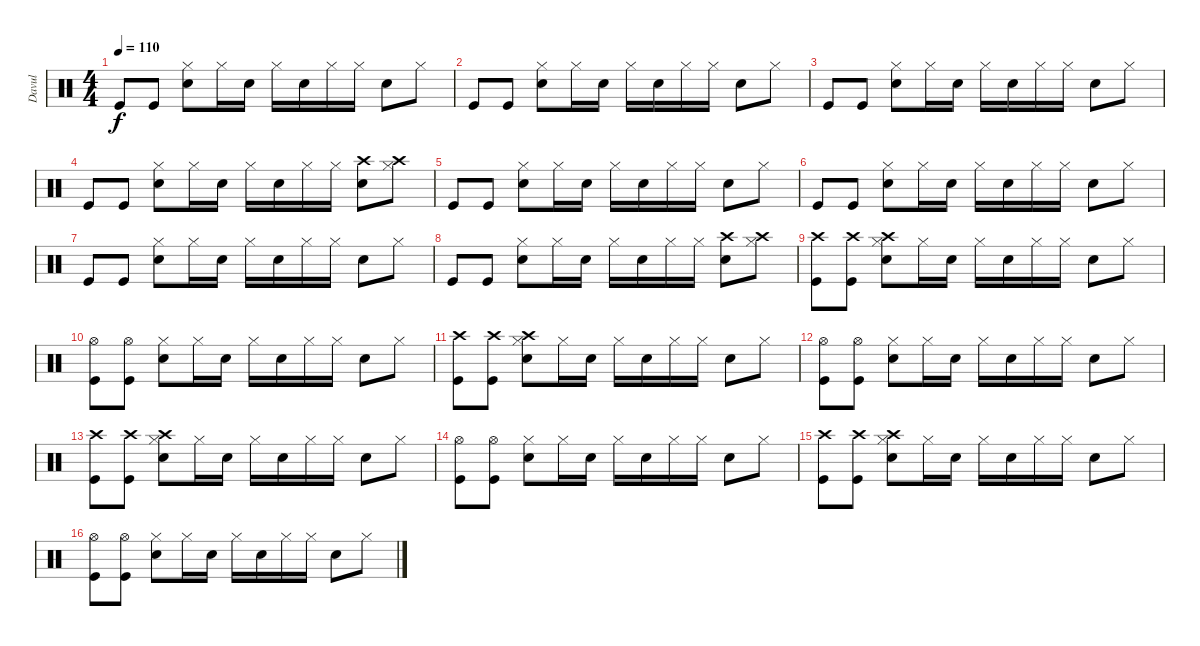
\track ("Davul" "Davul") {instrument percussion}
\staff {score}
\articulation defaults
\ts (4 4)
\tempo 110
\clef neutral
\ks c "Kick (hit)".8{dy f} "Kick (hit)".8
("Snare (hit) 2" "Hi-Hat (closed)").8 "Hi-Hat (closed)".16 "Snare (hit) 2".16 "Hi-Hat (closed)".16 "Snare (hit) 2".16 "Hi-Hat (closed)".16 "Hi-Hat (closed)".16 "Snare (hit) 2".8 "Hi-Hat (closed)".8 |
"Kick (hit)".8 "Kick (hit)".8 ("Snare (hit) 2" "Hi-Hat (closed)").8 "Hi-Hat (closed)".16 "Snare (hit) 2".16 "Hi-Hat (closed)".16 "Snare (hit) 2".16 "Hi-Hat (closed)".16 "Hi-Hat (closed)".16 "Snare (hit) 2".8 "Hi-Hat (closed)".8 |
"Kick (hit)".8 "Kick (hit)".8 ("Snare (hit) 2" "Hi-Hat (closed)").8 "Hi-Hat (closed)".16 "Snare (hit) 2".16 "Hi-Hat (closed)".16 "Snare (hit) 2".16 "Hi-Hat (closed)".16 "Hi-Hat (closed)".16 "Snare (hit) 2".8 "Hi-Hat (closed)".8 |
"Kick (hit)".8 "Kick (hit)".8 ("Snare (hit) 2" "Hi-Hat (closed)").8 "Hi-Hat (closed)".16 "Snare (hit) 2".16 "Hi-Hat (closed)".16 "Snare (hit) 2".16 "Hi-Hat (closed)".16 "Hi-Hat (closed)".16 ("Crash high (hit)" "Snare (hit) 2").8 ("Crash high (hit)" "Hi-Hat (closed)").8 |
"Kick (hit)".8 "Kick (hit)".8 ("Snare (hit) 2" "Hi-Hat (closed)").8 "Hi-Hat (closed)".16 "Snare (hit) 2".16 "Hi-Hat (closed)".16 "Snare (hit) 2".16 "Hi-Hat (closed)".16 "Hi-Hat (closed)".16 "Snare (hit) 2".8 "Hi-Hat (closed)".8 |
"Kick (hit)".8 "Kick (hit)".8 ("Snare (hit) 2" "Hi-Hat (closed)").8 "Hi-Hat (closed)".16 "Snare (hit) 2".16 "Hi-Hat (closed)".16 "Snare (hit) 2".16 "Hi-Hat (closed)".16 "Hi-Hat (closed)".16 "Snare (hit) 2".8 "Hi-Hat (closed)".8 |
"Kick (hit)".8 "Kick (hit)".8 ("Snare (hit) 2" "Hi-Hat (closed)").8 "Hi-Hat (closed)".16 "Snare (hit) 2".16 "Hi-Hat (closed)".16 "Snare (hit) 2".16 "Hi-Hat (closed)".16 "Hi-Hat (closed)".16 "Snare (hit) 2".8 "Hi-Hat (closed)".8 |
"Kick (hit)".8 "Kick (hit)".8 ("Snare (hit) 2" "Hi-Hat (closed)").8 "Hi-Hat (closed)".16 "Snare (hit) 2".16 "Hi-Hat (closed)".16 "Snare (hit) 2".16 "Hi-Hat (closed)".16 "Hi-Hat (closed)".16 ("Crash high (hit)" "Snare (hit) 2").8 ("Crash high (hit)" "Hi-Hat (closed)").8 |
("Kick (hit)" "Crash high (hit)").8 ("Kick (hit)" "Crash high (hit)").8 ("Snare (hit) 2" "Crash high (hit)" "Hi-Hat (closed)").8 "Hi-Hat (closed)".16 "Snare (hit) 2".16 "Hi-Hat (closed)".16 "Snare (hit) 2".16 "Hi-Hat (closed)".16 "Hi-Hat (closed)".16 "Snare (hit) 2".8 "Hi-Hat (closed)".8 |
("Kick (hit)" "Hi-Hat (open)").8 ("Kick (hit)" "Hi-Hat (open)").8 ("Snare (hit) 2" "Hi-Hat (closed)").8 "Hi-Hat (closed)".16 "Snare (hit) 2".16 "Hi-Hat (closed)".16 "Snare (hit) 2".16 "Hi-Hat (closed)".16 "Hi-Hat (closed)".16 "Snare (hit) 2".8 "Hi-Hat (closed)".8 |
("Kick (hit)" "Crash high (hit)").8 ("Kick (hit)" "Crash high (hit)").8 ("Snare (hit) 2" "Crash high (hit)" "Hi-Hat (closed)").8 "Hi-Hat (closed)".16 "Snare (hit) 2".16 "Hi-Hat (closed)".16 "Snare (hit) 2".16 "Hi-Hat (closed)".16 "Hi-Hat (closed)".16 "Snare (hit) 2".8 "Hi-Hat (closed)".8 |
("Kick (hit)" "Hi-Hat (open)").8 ("Kick (hit)" "Hi-Hat (open)").8 ("Snare (hit) 2" "Hi-Hat (closed)").8 "Hi-Hat (closed)".16 "Snare (hit) 2".16 "Hi-Hat (closed)".16 "Snare (hit) 2".16 "Hi-Hat (closed)".16 "Hi-Hat (closed)".16 "Snare (hit) 2".8 "Hi-Hat (closed)".8 |
("Kick (hit)" "Crash high (hit)").8 ("Kick (hit)" "Crash high (hit)").8 ("Snare (hit) 2" "Crash high (hit)" "Hi-Hat (closed)").8 "Hi-Hat (closed)".16 "Snare (hit) 2".16 "Hi-Hat (closed)".16 "Snare (hit) 2".16 "Hi-Hat (closed)".16 "Hi-Hat (closed)".16 "Snare (hit) 2".8 "Hi-Hat (closed)".8 |
("Kick (hit)" "Hi-Hat (open)").8 ("Kick (hit)" "Hi-Hat (open)").8 ("Snare (hit) 2" "Hi-Hat (closed)").8 "Hi-Hat (closed)".16 "Snare (hit) 2".16 "Hi-Hat (closed)".16 "Snare (hit) 2".16 "Hi-Hat (closed)".16 "Hi-Hat (closed)".16 "Snare (hit) 2".8 "Hi-Hat (closed)".8 |
("Kick (hit)" "Crash high (hit)").8 ("Kick (hit)" "Crash high (hit)").8 ("Snare (hit) 2" "Crash high (hit)" "Hi-Hat (closed)").8 "Hi-Hat (closed)".16 "Snare (hit) 2".16 "Hi-Hat (closed)".16 "Snare (hit) 2".16 "Hi-Hat (closed)".16 "Hi-Hat (closed)".16 "Snare (hit) 2".8 "Hi-Hat (closed)".8 |
("Kick (hit)" "Hi-Hat (open)").8 ("Kick (hit)" "Hi-Hat (open)").8 ("Snare (hit) 2" "Hi-Hat (closed)").8 "Hi-Hat (closed)".16 "Snare (hit) 2".16 "Hi-Hat (closed)".16 "Snare (hit) 2".16 "Hi-Hat (closed)".16 "Hi-Hat (closed)".16 "Snare (hit) 2".8 "Hi-Hat (closed)".8
